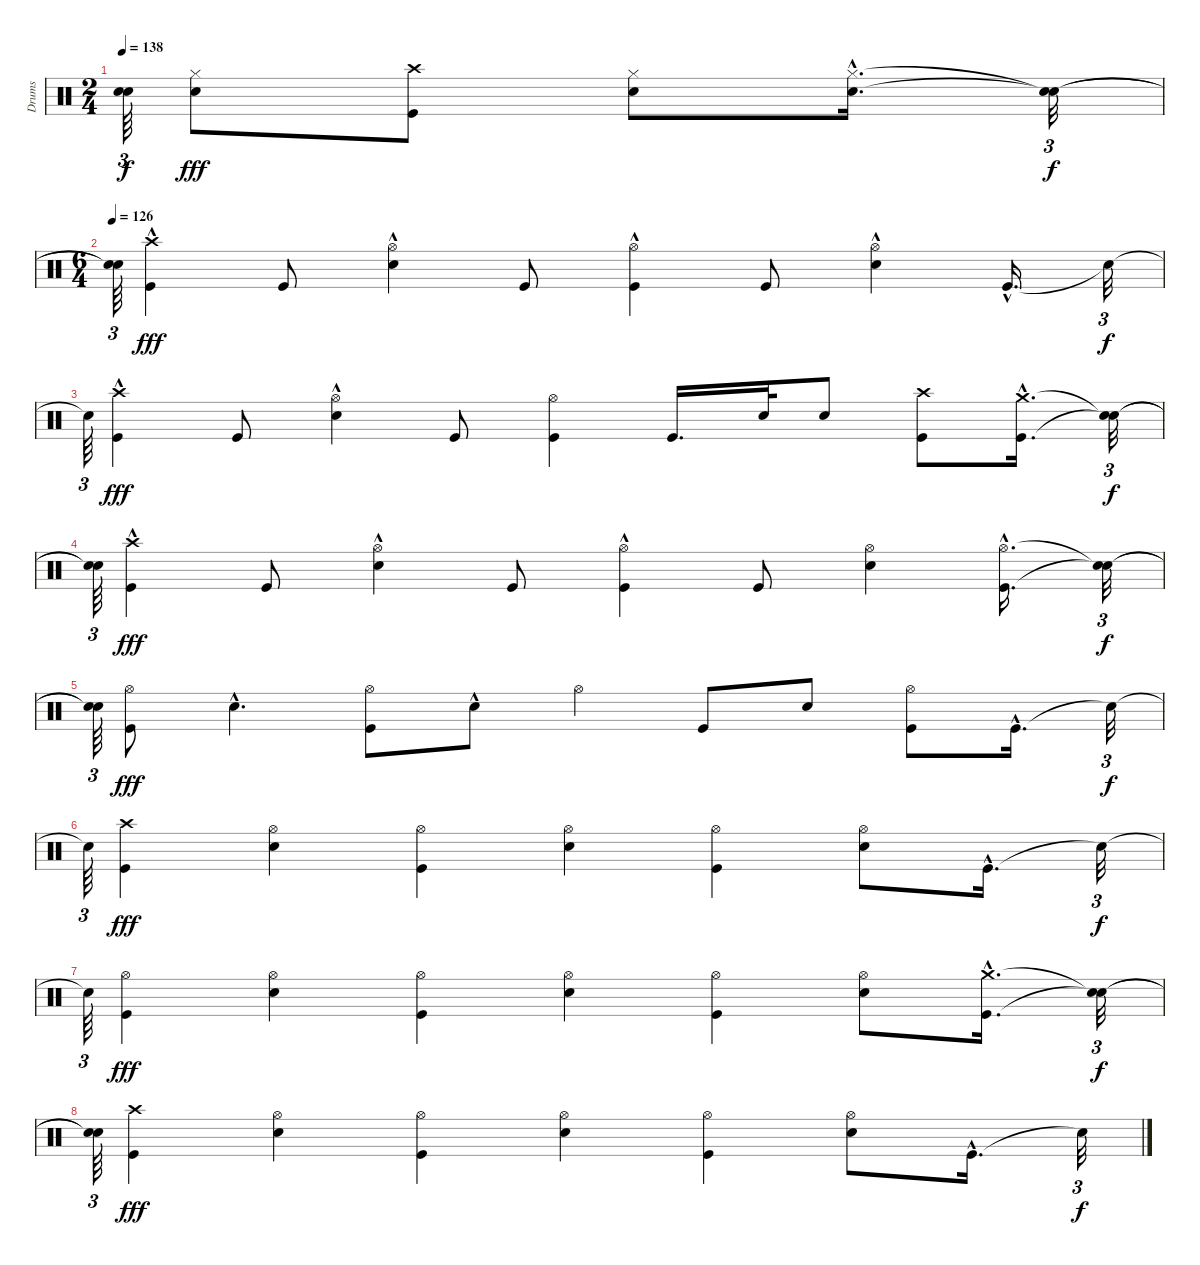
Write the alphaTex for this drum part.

\track ("Drums" "Drums") {instrument percussion}
\staff {score}
\articulation defaults
\ts (2 4)
\tempo 138
\clef neutral
\ks c
("Snare (hit)"{t} "Snare (hit)"{t}).64{tu (3 2) dy f} ("Snare (hit) 2" "Hi-Hat (closed)").8{dy fff} ("Kick (hit)" "Crash high (hit)").8 ("Snare (hit) 2" "Hi-Hat (closed)").8 ("Snare (hit) 2"{hac} "Hi-Hat (closed)"{hac}).16{d} ("Snare (hit)"{t} "Snare (hit)"{t}).32{tu (3 2) dy f} |
\ts (6 4)
\tempo 126
("Snare (hit)"{t} "Snare (hit)"{t}).64{tu (3 2)} ("Kick (hit)" "Crash high (hit)"{hac}).4{dy fff} "Kick (hit)".8 ("Snare (hit) 2" "Hi-Hat (open)"{hac}).4 "Kick (hit)".8 ("Kick (hit)" "Hi-Hat (open)"{hac}).4 "Kick (hit)".8 ("Snare (hit) 2" "Hi-Hat (open)"{hac}).4 "Kick (hit)"{hac}.16{d} "Snare (hit)"{t}.32{tu (3 2) dy f} |
"Snare (hit)"{t}.64{tu (3 2)} ("Kick (hit)" "Crash high (hit)"{hac}).4{dy fff} "Kick (hit)".8 ("Snare (hit) 2" "Hi-Hat (open)"{hac}).4 "Kick (hit)".8 ("Kick (hit)" "Hi-Hat (open)").4 "Kick (hit)".16{d} "Snare (hit) 2".32 "Snare (hit) 2".8 ("Kick (hit)" "Crash high (hit)").8 ("Kick (hit)"{hac} "Crash medium (hit)"{hac}).16{d} ("Snare (hit)"{t} "Snare (hit)"{t}).32{tu (3 2) dy f} |
("Snare (hit)"{t} "Snare (hit)"{t}).64{tu (3 2)} ("Kick (hit)" "Crash high (hit)"{hac}).4{dy fff} "Kick (hit)".8 ("Snare (hit) 2" "Hi-Hat (open)"{hac}).4 "Kick (hit)".8 ("Kick (hit)" "Hi-Hat (open)"{hac}).4 "Kick (hit)".8 ("Snare (hit) 2" "Hi-Hat (open)").4 ("Kick (hit)"{hac} "Hi-Hat (open)"{hac}).16{d} ("Snare (hit)"{t} "Snare (hit)"{t}).32{tu (3 2) dy f} |
("Snare (hit)"{t} "Snare (hit)"{t}).64{tu (3 2)} ("Kick (hit)" "Hi-Hat (open)").8{dy fff} "Snare (hit) 2"{hac}.4{d} ("Kick (hit)" "Hi-Hat (open)").8 "Snare (hit) 2"{hac}.8 "Hi-Hat (open)".4 "Kick (hit)".8 "Snare (hit) 2".8 ("Kick (hit)" "Hi-Hat (open)").8 "Kick (hit)"{hac}.16{d} "Snare (hit)"{t}.32{tu (3 2) dy f} |
"Snare (hit)"{t}.64{tu (3 2)} ("Kick (hit)" "Crash high (hit)").4{dy fff} ("Snare (hit) 2" "Hi-Hat (open)").4 ("Kick (hit)" "Hi-Hat (open)").4 ("Snare (hit) 2" "Hi-Hat (open)").4 ("Kick (hit)" "Hi-Hat (open)").4 ("Snare (hit) 2" "Hi-Hat (open)").8 "Kick (hit)"{hac}.16{d} "Snare (hit)"{t}.32{tu (3 2) dy f} |
"Snare (hit)"{t}.64{tu (3 2)} ("Kick (hit)" "Hi-Hat (open)").4{dy fff} ("Snare (hit) 2" "Hi-Hat (open)").4 ("Kick (hit)" "Hi-Hat (open)").4 ("Snare (hit) 2" "Hi-Hat (open)").4 ("Kick (hit)" "Hi-Hat (open)").4 ("Snare (hit) 2" "Hi-Hat (open)").8 ("Kick (hit)"{hac} "Crash medium (hit)"{hac}).16{d} ("Snare (hit)"{t} "Snare (hit)"{t}).32{tu (3 2) dy f} |
("Snare (hit)"{t} "Snare (hit)"{t}).64{tu (3 2)} ("Kick (hit)" "Crash high (hit)").4{dy fff} ("Snare (hit) 2" "Hi-Hat (open)").4 ("Kick (hit)" "Hi-Hat (open)").4 ("Snare (hit) 2" "Hi-Hat (open)").4 ("Kick (hit)" "Hi-Hat (open)").4 ("Snare (hit) 2" "Hi-Hat (open)").8 "Kick (hit)"{hac}.16{d} "Snare (hit)"{t}.32{tu (3 2) dy f}
